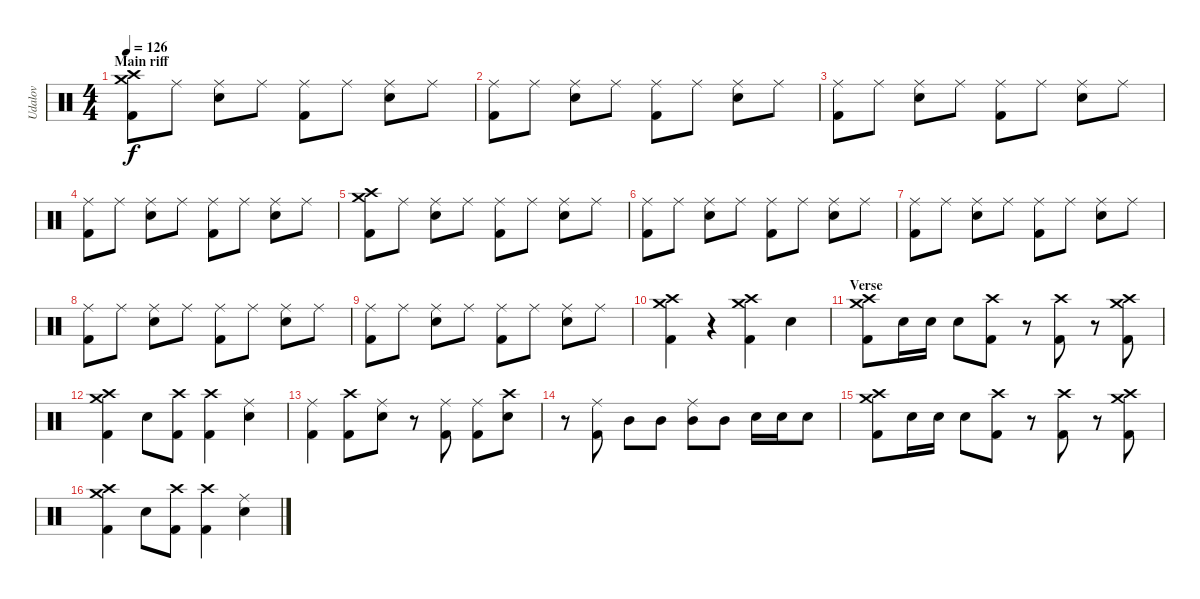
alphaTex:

\track ("Udalov" "Udalov") {instrument percussion}
\staff {score}
\articulation defaults
\ts (4 4)
\section ("" "Main riff")
\tempo 126
\clef neutral
\ks c
("Kick (hit) 2" "Crash high (hit)" "Crash medium (hit)").8{dy f} "Ride (middle)".8 ("Snare (hit) 2" "Ride (middle)").8 "Ride (middle)".8 ("Kick (hit) 2" "Ride (middle)").8 "Ride (middle)".8 ("Snare (hit) 2" "Ride (middle)").8 "Ride (middle)".8 |
("Kick (hit) 2" "Ride (middle)").8 "Ride (middle)".8 ("Snare (hit) 2" "Ride (middle)").8 "Ride (middle)".8 ("Kick (hit) 2" "Ride (middle)").8 "Ride (middle)".8 ("Snare (hit) 2" "Ride (middle)").8 "Ride (middle)".8 |
("Kick (hit) 2" "Ride (middle)").8 "Ride (middle)".8 ("Snare (hit) 2" "Ride (middle)").8 "Ride (middle)".8 ("Kick (hit) 2" "Ride (middle)").8 "Ride (middle)".8 ("Snare (hit) 2" "Ride (middle)").8 "Ride (middle)".8 |
("Kick (hit) 2" "Ride (middle)").8 "Ride (middle)".8 ("Snare (hit) 2" "Ride (middle)").8 "Ride (middle)".8 ("Kick (hit) 2" "Ride (middle)").8 "Ride (middle)".8 ("Snare (hit) 2" "Ride (middle)").8 "Ride (middle)".8 |
("Crash high (hit)" "Crash medium (hit)" "Kick (hit) 2").8 "Ride (middle)".8 ("Snare (hit) 2" "Ride (middle)").8 "Ride (middle)".8 ("Kick (hit) 2" "Ride (middle)").8 "Ride (middle)".8 ("Snare (hit) 2" "Ride (middle)").8 "Ride (middle)".8 |
("Kick (hit) 2" "Ride (middle)").8 "Ride (middle)".8 ("Snare (hit) 2" "Ride (middle)").8 "Ride (middle)".8 ("Kick (hit) 2" "Ride (middle)").8 "Ride (middle)".8 ("Snare (hit) 2" "Ride (middle)").8 "Ride (middle)".8 |
("Kick (hit) 2" "Ride (middle)").8 "Ride (middle)".8 ("Snare (hit) 2" "Ride (middle)").8 "Ride (middle)".8 ("Kick (hit) 2" "Ride (middle)").8 "Ride (middle)".8 ("Snare (hit) 2" "Ride (middle)").8 "Ride (middle)".8 |
("Kick (hit) 2" "Ride (middle)").8 "Ride (middle)".8 ("Snare (hit) 2" "Ride (middle)").8 "Ride (middle)".8 ("Kick (hit) 2" "Ride (middle)").8 "Ride (middle)".8 ("Snare (hit) 2" "Ride (middle)").8 "Ride (middle)".8 |
("Kick (hit) 2" "Ride (middle)").8 "Ride (middle)".8 ("Snare (hit) 2" "Ride (middle)").8 "Ride (middle)".8 ("Kick (hit) 2" "Ride (middle)").8 "Ride (middle)".8 ("Snare (hit) 2" "Ride (middle)").8 "Ride (middle)".8 |
("Kick (hit) 2" "Crash high (hit)" "Crash medium (hit)").4 r.4 ("Kick (hit) 2" "Crash high (hit)" "Crash medium (hit)").4 "Snare (hit) 2".4 |
\section ("" "Verse")
("Kick (hit) 2" "Crash high (hit)" "Crash medium (hit)").8 "Snare (hit) 2".16 "Electric Snare (hit)".16 "Snare (hit) 2".8 ("Kick (hit) 2" "Crash high (hit)").8 r.8 ("Kick (hit) 2" "Crash high (hit)").8 r.8 ("Kick (hit) 2" "Crash medium (hit)" "Crash high (hit)").8 |
("Kick (hit) 2" "Crash high (hit)" "Crash medium (hit)").4 "Snare (hit) 2".8 ("Kick (hit) 2" "Crash high (hit)").8 ("Kick (hit) 2" "Crash high (hit)").4 ("Snare (hit) 2" "Ride (middle)").4 |
("Kick (hit) 2" "Ride (middle)").4 ("Kick (hit) 2" "Crash high (hit)").8 ("Snare (hit) 2" "Ride (middle)").8 r.8 ("Kick (hit) 2" "Ride (middle)").8 ("Kick (hit) 2" "Ride (middle)").8 ("Snare (hit) 2" "Crash high (hit)").8 |
r.8 ("Kick (hit) 2" "Ride (middle)").8 "Mid Tom (hit)".8 "Mid Tom (hit)".8 ("Mid Tom (hit)" "Ride (middle)").8 "Mid Tom (hit)".8 "Electric Snare (hit)".16 "Electric Snare (hit)".16 "Electric Snare (hit)".8 |
("Kick (hit) 2" "Crash high (hit)" "Crash medium (hit)").8 "Snare (hit) 2".16 "Electric Snare (hit)".16 "Snare (hit) 2".8 ("Kick (hit) 2" "Crash high (hit)").8 r.8 ("Kick (hit) 2" "Crash high (hit)").8 r.8 ("Kick (hit) 2" "Crash medium (hit)" "Crash high (hit)").8 |
("Kick (hit) 2" "Crash high (hit)" "Crash medium (hit)").4 "Snare (hit) 2".8 ("Kick (hit) 2" "Crash high (hit)").8 ("Kick (hit) 2" "Crash high (hit)").4 ("Snare (hit) 2" "Ride (middle)").4
